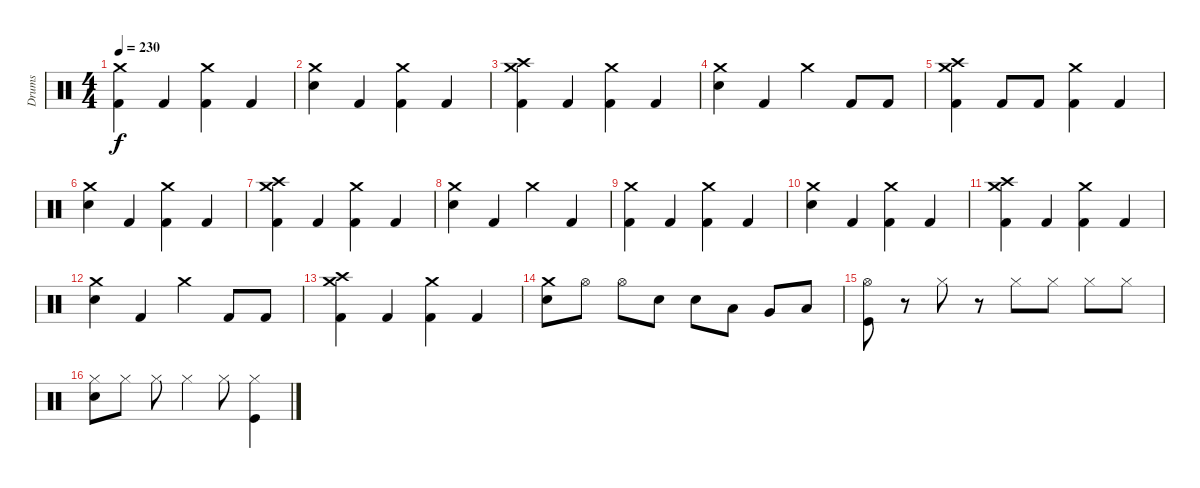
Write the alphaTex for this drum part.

\track ("Drums" "Drums") {instrument percussion}
\staff {score}
\articulation defaults
\ts (4 4)
\tempo 230
\clef neutral
\ks c
("Crash medium (hit)" "Kick (hit) 2").4{dy f} "Kick (hit) 2".4 ("Crash medium (hit)" "Kick (hit) 2").4 "Kick (hit) 2".4 |
("Crash medium (hit)" "Electric Snare (hit)").4 "Kick (hit) 2".4 ("Crash medium (hit)" "Kick (hit) 2").4 "Kick (hit) 2".4 |
("Crash medium (hit)" "Crash high (hit)" "Kick (hit) 2").4 "Kick (hit) 2".4 ("Crash medium (hit)" "Kick (hit) 2").4 "Kick (hit) 2".4 |
("Crash medium (hit)" "Electric Snare (hit)").4 "Kick (hit) 2".4 "Crash medium (hit)".4 "Kick (hit) 2".8 "Kick (hit) 2".8 |
("Crash medium (hit)" "Crash high (hit)" "Kick (hit) 2").4 "Kick (hit) 2".8 "Kick (hit) 2".8 ("Crash medium (hit)" "Kick (hit) 2").4 "Kick (hit) 2".4 |
("Crash medium (hit)" "Electric Snare (hit)").4 "Kick (hit) 2".4 ("Crash medium (hit)" "Kick (hit) 2").4 "Kick (hit) 2".4 |
("Crash medium (hit)" "Crash high (hit)" "Kick (hit) 2").4 "Kick (hit) 2".4 ("Crash medium (hit)" "Kick (hit) 2").4 "Kick (hit) 2".4 |
("Crash medium (hit)" "Electric Snare (hit)").4 "Kick (hit) 2".4 "Crash medium (hit)".4 "Kick (hit) 2".4 |
("Crash medium (hit)" "Kick (hit) 2").4 "Kick (hit) 2".4 ("Crash medium (hit)" "Kick (hit) 2").4 "Kick (hit) 2".4 |
("Crash medium (hit)" "Electric Snare (hit)").4 "Kick (hit) 2".4 ("Crash medium (hit)" "Kick (hit) 2").4 "Kick (hit) 2".4 |
("Crash medium (hit)" "Crash high (hit)" "Kick (hit) 2").4 "Kick (hit) 2".4 ("Crash medium (hit)" "Kick (hit) 2").4 "Kick (hit) 2".4 |
("Crash medium (hit)" "Electric Snare (hit)").4 "Kick (hit) 2".4 "Crash medium (hit)".4 "Kick (hit) 2".8 "Kick (hit) 2".8 |
("Crash medium (hit)" "Crash high (hit)" "Kick (hit) 2").4 "Kick (hit) 2".4 ("Crash medium (hit)" "Kick (hit) 2").4 "Kick (hit) 2".4 |
("Crash medium (hit)" "Electric Snare (hit)").8 "Hi-Hat (open)".8 "Hi-Hat (open)".8 "Electric Snare (hit)".8 "Electric Snare (hit)".8 "Low Tom (hit)".8 "Very Low Tom (hit)".8 "Low Floor Tom (hit)".8 |
("Hi-Hat (open)" "Kick (hit)").8 r.8 "Hi-Hat (closed)".8 r.8 "Hi-Hat (closed)".8 "Hi-Hat (closed)".8 "Hi-Hat (closed)".8 "Hi-Hat (closed)".8 |
("Hi-Hat (closed)" "Snare (hit) 2").8 "Hi-Hat (closed)".8 "Hi-Hat (closed)".8 "Hi-Hat (closed)".4 "Hi-Hat (closed)".8 ("Hi-Hat (closed)" "Kick (hit)").4
